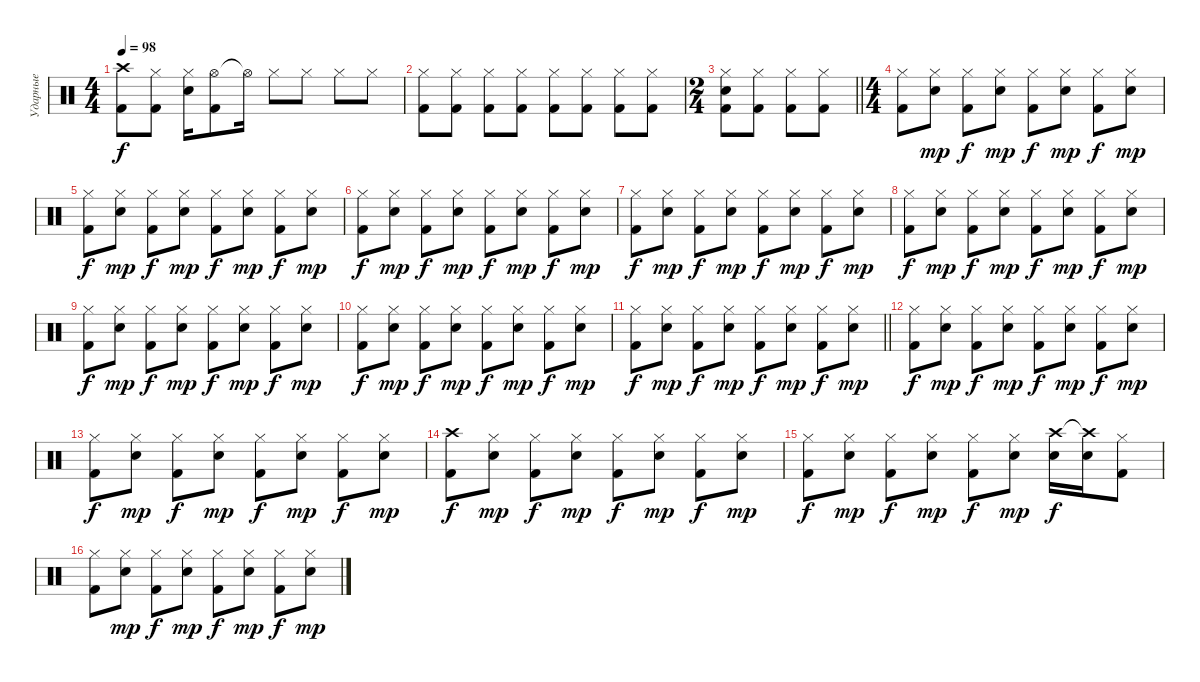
\track ("Ударные" "Ударные") {instrument percussion}
\staff {score}
\articulation defaults
\ts (4 4)
\tempo 98
\clef neutral
\ks c
("Crash high (hit)" "Kick (hit) 2").8{dy f} ("Hi-Hat (closed)" "Kick (hit) 2").8 ("Hi-Hat (closed)" "Snare (hit) 2").16 ("Hi-Hat (open)" "Kick (hit) 2").8 "Hi-Hat (open)"{t}.16 "Hi-Hat (closed)".8 "Hi-Hat (closed)".8 "Hi-Hat (closed)".8 "Hi-Hat (closed)".8 |
("Hi-Hat (closed)" "Kick (hit) 2").8 ("Hi-Hat (closed)" "Kick (hit) 2").8 ("Hi-Hat (closed)" "Kick (hit) 2").8 ("Hi-Hat (closed)" "Kick (hit) 2").8 ("Hi-Hat (closed)" "Kick (hit) 2").8 ("Hi-Hat (closed)" "Kick (hit) 2").8 ("Hi-Hat (closed)" "Kick (hit) 2").8 ("Hi-Hat (closed)" "Kick (hit) 2").8 |
\ts (2 4)
\barLineRight lightlight
("Hi-Hat (closed)" "Snare (hit) 2" "Kick (hit) 2").8 ("Hi-Hat (closed)" "Kick (hit) 2").8 ("Hi-Hat (closed)" "Kick (hit) 2").8 ("Hi-Hat (closed)" "Kick (hit) 2").8 |
\ts (4 4)
("Hi-Hat (closed)" "Kick (hit) 2").8 ("Hi-Hat (closed)" "Snare (hit) 2").8{dy mp} ("Hi-Hat (closed)" "Kick (hit) 2").8{dy f} ("Hi-Hat (closed)" "Snare (hit) 2").8{dy mp} ("Hi-Hat (closed)" "Kick (hit) 2").8{dy f} ("Hi-Hat (closed)" "Snare (hit) 2").8{dy mp} ("Hi-Hat (closed)" "Kick (hit) 2").8{dy f} ("Hi-Hat (closed)" "Snare (hit) 2").8{dy mp} |
("Hi-Hat (closed)" "Kick (hit) 2").8{dy f} ("Hi-Hat (closed)" "Snare (hit) 2").8{dy mp} ("Hi-Hat (closed)" "Kick (hit) 2").8{dy f} ("Hi-Hat (closed)" "Snare (hit) 2").8{dy mp} ("Hi-Hat (closed)" "Kick (hit) 2").8{dy f} ("Hi-Hat (closed)" "Snare (hit) 2").8{dy mp} ("Hi-Hat (closed)" "Kick (hit) 2").8{dy f} ("Hi-Hat (closed)" "Snare (hit) 2").8{dy mp} |
("Hi-Hat (closed)" "Kick (hit) 2").8{dy f} ("Hi-Hat (closed)" "Snare (hit) 2").8{dy mp} ("Hi-Hat (closed)" "Kick (hit) 2").8{dy f} ("Hi-Hat (closed)" "Snare (hit) 2").8{dy mp} ("Hi-Hat (closed)" "Kick (hit) 2").8{dy f} ("Hi-Hat (closed)" "Snare (hit) 2").8{dy mp} ("Hi-Hat (closed)" "Kick (hit) 2").8{dy f} ("Hi-Hat (closed)" "Snare (hit) 2").8{dy mp} |
("Hi-Hat (closed)" "Kick (hit) 2").8{dy f} ("Hi-Hat (closed)" "Snare (hit) 2").8{dy mp} ("Hi-Hat (closed)" "Kick (hit) 2").8{dy f} ("Hi-Hat (closed)" "Snare (hit) 2").8{dy mp} ("Hi-Hat (closed)" "Kick (hit) 2").8{dy f} ("Hi-Hat (closed)" "Snare (hit) 2").8{dy mp} ("Hi-Hat (closed)" "Kick (hit) 2").8{dy f} ("Hi-Hat (closed)" "Snare (hit) 2").8{dy mp} |
("Hi-Hat (closed)" "Kick (hit) 2").8{dy f} ("Hi-Hat (closed)" "Snare (hit) 2").8{dy mp} ("Hi-Hat (closed)" "Kick (hit) 2").8{dy f} ("Hi-Hat (closed)" "Snare (hit) 2").8{dy mp} ("Hi-Hat (closed)" "Kick (hit) 2").8{dy f} ("Hi-Hat (closed)" "Snare (hit) 2").8{dy mp} ("Hi-Hat (closed)" "Kick (hit) 2").8{dy f} ("Hi-Hat (closed)" "Snare (hit) 2").8{dy mp} |
("Hi-Hat (closed)" "Kick (hit) 2").8{dy f} ("Hi-Hat (closed)" "Snare (hit) 2").8{dy mp} ("Hi-Hat (closed)" "Kick (hit) 2").8{dy f} ("Hi-Hat (closed)" "Snare (hit) 2").8{dy mp} ("Hi-Hat (closed)" "Kick (hit) 2").8{dy f} ("Hi-Hat (closed)" "Snare (hit) 2").8{dy mp} ("Hi-Hat (closed)" "Kick (hit) 2").8{dy f} ("Hi-Hat (closed)" "Snare (hit) 2").8{dy mp} |
("Hi-Hat (closed)" "Kick (hit) 2").8{dy f} ("Hi-Hat (closed)" "Snare (hit) 2").8{dy mp} ("Hi-Hat (closed)" "Kick (hit) 2").8{dy f} ("Hi-Hat (closed)" "Snare (hit) 2").8{dy mp} ("Hi-Hat (closed)" "Kick (hit) 2").8{dy f} ("Hi-Hat (closed)" "Snare (hit) 2").8{dy mp} ("Hi-Hat (closed)" "Kick (hit) 2").8{dy f} ("Hi-Hat (closed)" "Snare (hit) 2").8{dy mp} |
\barLineRight lightlight
("Hi-Hat (closed)" "Kick (hit) 2").8{dy f} ("Hi-Hat (closed)" "Snare (hit) 2").8{dy mp} ("Hi-Hat (closed)" "Kick (hit) 2").8{dy f} ("Hi-Hat (closed)" "Snare (hit) 2").8{dy mp} ("Hi-Hat (closed)" "Kick (hit) 2").8{dy f} ("Hi-Hat (closed)" "Snare (hit) 2").8{dy mp} ("Hi-Hat (closed)" "Kick (hit) 2").8{dy f} ("Hi-Hat (closed)" "Snare (hit) 2").8{dy mp} |
("Hi-Hat (closed)" "Kick (hit) 2").8{dy f} ("Hi-Hat (closed)" "Snare (hit) 2").8{dy mp} ("Hi-Hat (closed)" "Kick (hit) 2").8{dy f} ("Hi-Hat (closed)" "Snare (hit) 2").8{dy mp} ("Hi-Hat (closed)" "Kick (hit) 2").8{dy f} ("Hi-Hat (closed)" "Snare (hit) 2").8{dy mp} ("Hi-Hat (closed)" "Kick (hit) 2").8{dy f} ("Hi-Hat (closed)" "Snare (hit) 2").8{dy mp} |
("Hi-Hat (closed)" "Kick (hit) 2").8{dy f} ("Hi-Hat (closed)" "Snare (hit) 2").8{dy mp} ("Hi-Hat (closed)" "Kick (hit) 2").8{dy f} ("Hi-Hat (closed)" "Snare (hit) 2").8{dy mp} ("Hi-Hat (closed)" "Kick (hit) 2").8{dy f} ("Hi-Hat (closed)" "Snare (hit) 2").8{dy mp} ("Hi-Hat (closed)" "Kick (hit) 2").8{dy f} ("Hi-Hat (closed)" "Snare (hit) 2").8{dy mp} |
("Crash high (hit)" "Kick (hit) 2").8{dy f} ("Hi-Hat (closed)" "Snare (hit) 2").8{dy mp} ("Hi-Hat (closed)" "Kick (hit) 2").8{dy f} ("Hi-Hat (closed)" "Snare (hit) 2").8{dy mp} ("Hi-Hat (closed)" "Kick (hit) 2").8{dy f} ("Hi-Hat (closed)" "Snare (hit) 2").8{dy mp} ("Hi-Hat (closed)" "Kick (hit) 2").8{dy f} ("Hi-Hat (closed)" "Snare (hit) 2").8{dy mp} |
("Hi-Hat (closed)" "Kick (hit) 2").8{dy f} ("Hi-Hat (closed)" "Snare (hit) 2").8{dy mp} ("Hi-Hat (closed)" "Kick (hit) 2").8{dy f} ("Hi-Hat (closed)" "Snare (hit) 2").8{dy mp} ("Hi-Hat (closed)" "Kick (hit) 2").8{dy f} ("Hi-Hat (closed)" "Snare (hit) 2").8{dy mp} ("Crash high (hit)" "Electric Snare (hit)").16{dy f} ("Crash high (hit)"{t} "Snare (hit) 2").16 ("Hi-Hat (closed)" "Kick (hit) 2").8 |
("Hi-Hat (closed)" "Kick (hit) 2").8 ("Hi-Hat (closed)" "Snare (hit) 2").8{dy mp} ("Hi-Hat (closed)" "Kick (hit) 2").8{dy f} ("Hi-Hat (closed)" "Snare (hit) 2").8{dy mp} ("Hi-Hat (closed)" "Kick (hit) 2").8{dy f} ("Hi-Hat (closed)" "Snare (hit) 2").8{dy mp} ("Hi-Hat (closed)" "Kick (hit) 2").8{dy f} ("Hi-Hat (closed)" "Snare (hit) 2").8{dy mp}
